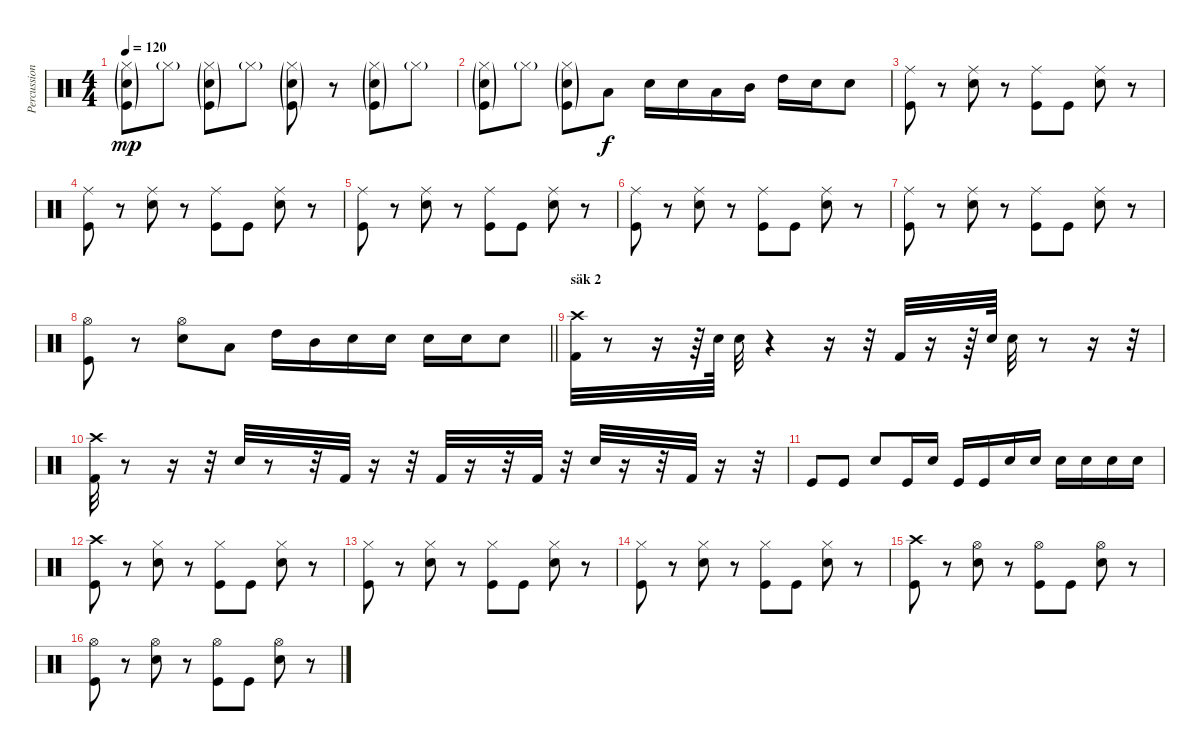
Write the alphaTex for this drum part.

\track ("Percussion" "Percussion") {instrument percussion}
\staff {score}
\articulation defaults
\ts (4 4)
\tempo 120
\clef neutral
\ks c
("Snare (hit) 2"{g} "Kick (hit)"{g} "Hi-Hat (closed)"{g}).8{dy mp} "Hi-Hat (closed)"{g}.8 ("Snare (hit) 2"{g} "Kick (hit)"{g} "Hi-Hat (closed)"{g}).8 "Hi-Hat (closed)"{g}.8 ("Snare (hit) 2"{g} "Kick (hit)"{g} "Hi-Hat (closed)"{g}).8 r.8 ("Snare (hit) 2"{g} "Kick (hit)"{g} "Hi-Hat (closed)"{g}).8 "Hi-Hat (closed)"{g}.8 |
("Snare (hit) 2"{g} "Kick (hit)"{g} "Hi-Hat (closed)"{g}).8 "Hi-Hat (closed)"{g}.8 ("Snare (hit) 2"{g} "Kick (hit)"{g} "Hi-Hat (closed)"{g}).8 "Low Tom (hit)".8{dy f} "Snare (hit) 2".16 "Snare (hit) 2".16 "Low Tom (hit)".16 "Mid Tom (hit)".16 "High Tom (hit)".16 "Snare (hit) 2".16 "Snare (hit) 2".8 |
("Ride (middle)" "Kick (hit)").8 r.8 ("Ride (middle)" "Snare (hit) 2").8 r.8 ("Ride (middle)" "Kick (hit)").8 "Kick (hit)".8 ("Ride (middle)" "Snare (hit) 2").8 r.8 |
("Ride (middle)" "Kick (hit)").8 r.8 ("Ride (middle)" "Snare (hit) 2").8 r.8 ("Ride (middle)" "Kick (hit)").8 "Kick (hit)".8 ("Ride (middle)" "Snare (hit) 2").8 r.8 |
("Ride (middle)" "Kick (hit)").8 r.8 ("Ride (middle)" "Snare (hit) 2").8 r.8 ("Ride (middle)" "Kick (hit)").8 "Kick (hit)".8 ("Ride (middle)" "Snare (hit) 2").8 r.8 |
("Ride (middle)" "Kick (hit)").8 r.8 ("Ride (middle)" "Snare (hit) 2").8 r.8 ("Ride (middle)" "Kick (hit)").8 "Kick (hit)".8 ("Ride (middle)" "Snare (hit) 2").8 r.8 |
("Ride (middle)" "Kick (hit)").8 r.8 ("Ride (middle)" "Snare (hit) 2").8 r.8 ("Ride (middle)" "Kick (hit)").8 "Kick (hit)".8 ("Ride (middle)" "Snare (hit) 2").8 r.8 |
\barLineRight lightlight
("Hi-Hat (open)" "Kick (hit)").8 r.8 ("Hi-Hat (open)" "Snare (hit) 2").8 "Low Tom (hit)".8 "High Tom (hit)".16 "Mid Tom (hit)".16 "Snare (hit) 2".16 "Snare (hit) 2".16 "Snare (hit) 2".16 "Snare (hit) 2".16 "Snare (hit) 2".8 |
\section ("" "säk 2")
("Kick (hit) 2" "Crash high (hit)").32 r.8 r.16 r.64 "Snare (hit) 2".64 "Snare (hit) 2".32 r.4 r.16 r.32 "Kick (hit) 2".32 r.16 r.64 "Snare (hit) 2".64 "Snare (hit) 2".32 r.8 r.16 r.32 |
("Kick (hit) 2" "Crash high (hit)").32 r.8 r.16 r.32 "Snare (hit) 2".32 r.8 r.32 "Kick (hit) 2".32 r.16 r.32 "Kick (hit) 2".32 r.16 r.32 "Kick (hit) 2".32 r.32 "Snare (hit) 2".32 r.16 r.32 "Kick (hit) 2".32 r.16 r.32 |
"Kick (hit)".8 "Kick (hit)".8 "Snare (hit) 2".8 "Kick (hit)".16 "Snare (hit) 2".16 "Kick (hit)".16 "Kick (hit)".16 "Snare (hit) 2".16 "Snare (hit) 2".16 "Snare (hit) 2".16 "Snare (hit) 2".16 "Snare (hit) 2".16 "Snare (hit) 2".16 |
("Crash high (hit)" "Kick (hit)").8 r.8 ("Hi-Hat (closed)" "Snare (hit) 2").8 r.8 ("Hi-Hat (closed)" "Kick (hit)").8 "Kick (hit)".8 ("Hi-Hat (closed)" "Snare (hit) 2").8 r.8 |
("Hi-Hat (closed)" "Kick (hit)").8 r.8 ("Hi-Hat (closed)" "Snare (hit) 2").8 r.8 ("Hi-Hat (closed)" "Kick (hit)").8 "Kick (hit)".8 ("Hi-Hat (closed)" "Snare (hit) 2").8 r.8 |
("Hi-Hat (closed)" "Kick (hit)").8 r.8 ("Hi-Hat (closed)" "Snare (hit) 2").8 r.8 ("Hi-Hat (closed)" "Kick (hit)").8 "Kick (hit)".8 ("Hi-Hat (closed)" "Snare (hit) 2").8 r.8 |
("Crash high (hit)" "Kick (hit)").8 r.8 ("Hi-Hat (open)" "Snare (hit) 2").8 r.8 ("Hi-Hat (open)" "Kick (hit)").8 "Kick (hit)".8 ("Hi-Hat (open)" "Snare (hit) 2").8 r.8 |
("Hi-Hat (open)" "Kick (hit)").8 r.8 ("Hi-Hat (open)" "Snare (hit) 2").8 r.8 ("Hi-Hat (open)" "Kick (hit)").8 "Kick (hit)".8 ("Hi-Hat (open)" "Snare (hit) 2").8 r.8
